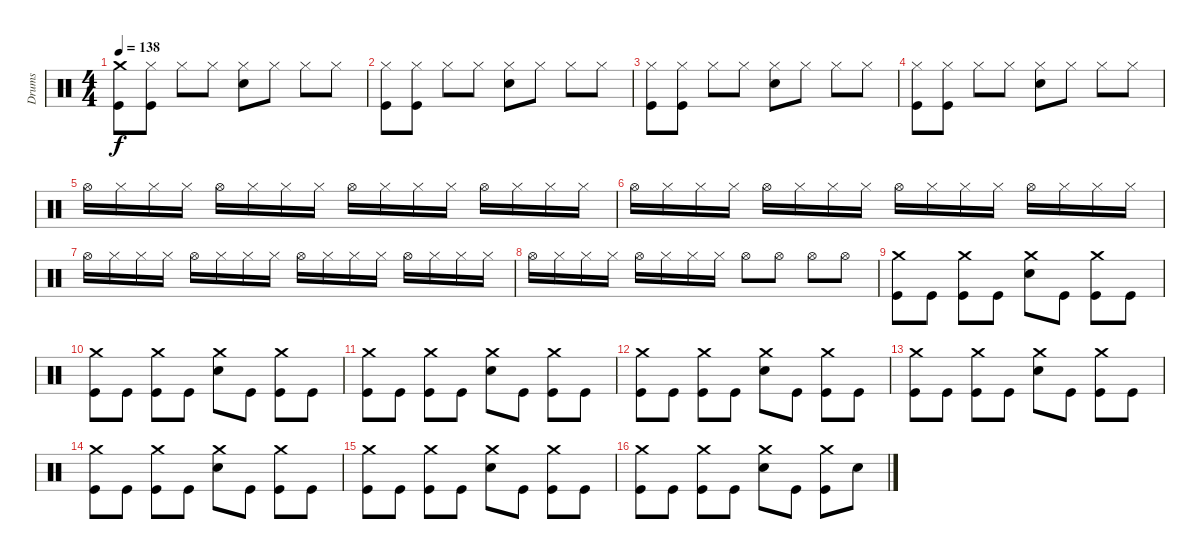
\track ("Drums" "Drums") {instrument percussion}
\staff {score}
\articulation defaults
\ts (4 4)
\tempo 138
\clef neutral
\ks c
("Crash medium (hit)" "Kick (hit)").8{dy f} ("Hi-Hat (closed)" "Kick (hit)").8 "Hi-Hat (closed)".8 "Hi-Hat (closed)".8 ("Hi-Hat (closed)" "Snare (hit) 2").8 "Hi-Hat (closed)".8 "Hi-Hat (closed)".8 "Hi-Hat (closed)".8 |
("Hi-Hat (closed)" "Kick (hit)").8 ("Hi-Hat (closed)" "Kick (hit)").8 "Hi-Hat (closed)".8 "Hi-Hat (closed)".8 ("Hi-Hat (closed)" "Snare (hit) 2").8 "Hi-Hat (closed)".8 "Hi-Hat (closed)".8 "Hi-Hat (closed)".8 |
("Hi-Hat (closed)" "Kick (hit)").8 ("Hi-Hat (closed)" "Kick (hit)").8 "Hi-Hat (closed)".8 "Hi-Hat (closed)".8 ("Hi-Hat (closed)" "Snare (hit) 2").8 "Hi-Hat (closed)".8 "Hi-Hat (closed)".8 "Hi-Hat (closed)".8 |
("Hi-Hat (closed)" "Kick (hit)").8 ("Hi-Hat (closed)" "Kick (hit)").8 "Hi-Hat (closed)".8 "Hi-Hat (closed)".8 ("Hi-Hat (closed)" "Snare (hit) 2").8 "Hi-Hat (closed)".8 "Hi-Hat (closed)".8 "Hi-Hat (closed)".8 |
"Hi-Hat (open)".16 "Hi-Hat (closed)".16 "Hi-Hat (closed)".16 "Hi-Hat (closed)".16 "Hi-Hat (open)".16 "Hi-Hat (closed)".16 "Hi-Hat (closed)".16 "Hi-Hat (closed)".16 "Hi-Hat (open)".16 "Hi-Hat (closed)".16 "Hi-Hat (closed)".16 "Hi-Hat (closed)".16 "Hi-Hat (open)".16 "Hi-Hat (closed)".16 "Hi-Hat (closed)".16 "Hi-Hat (closed)".16 |
"Hi-Hat (open)".16 "Hi-Hat (closed)".16 "Hi-Hat (closed)".16 "Hi-Hat (closed)".16 "Hi-Hat (open)".16 "Hi-Hat (closed)".16 "Hi-Hat (closed)".16 "Hi-Hat (closed)".16 "Hi-Hat (open)".16 "Hi-Hat (closed)".16 "Hi-Hat (closed)".16 "Hi-Hat (closed)".16 "Hi-Hat (open)".16 "Hi-Hat (closed)".16 "Hi-Hat (closed)".16 "Hi-Hat (closed)".16 |
"Hi-Hat (open)".16 "Hi-Hat (closed)".16 "Hi-Hat (closed)".16 "Hi-Hat (closed)".16 "Hi-Hat (open)".16 "Hi-Hat (closed)".16 "Hi-Hat (closed)".16 "Hi-Hat (closed)".16 "Hi-Hat (open)".16 "Hi-Hat (closed)".16 "Hi-Hat (closed)".16 "Hi-Hat (closed)".16 "Hi-Hat (open)".16 "Hi-Hat (closed)".16 "Hi-Hat (closed)".16 "Hi-Hat (closed)".16 |
"Hi-Hat (open)".16 "Hi-Hat (closed)".16 "Hi-Hat (closed)".16 "Hi-Hat (closed)".16 "Hi-Hat (open)".16 "Hi-Hat (closed)".16 "Hi-Hat (closed)".16 "Hi-Hat (closed)".16 "Hi-Hat (open)".8 "Hi-Hat (open)".8 "Hi-Hat (open)".8 "Hi-Hat (open)".8 |
("Crash medium (hit)" "Kick (hit)").8 "Kick (hit)".8 ("Crash medium (hit)" "Kick (hit)").8 "Kick (hit)".8 ("Crash medium (hit)" "Snare (hit) 2").8 "Kick (hit)".8 ("Crash medium (hit)" "Kick (hit)").8 "Kick (hit)".8 |
("Crash medium (hit)" "Kick (hit)").8 "Kick (hit)".8 ("Crash medium (hit)" "Kick (hit)").8 "Kick (hit)".8 ("Crash medium (hit)" "Snare (hit) 2").8 "Kick (hit)".8 ("Crash medium (hit)" "Kick (hit)").8 "Kick (hit)".8 |
("Crash medium (hit)" "Kick (hit)").8 "Kick (hit)".8 ("Crash medium (hit)" "Kick (hit)").8 "Kick (hit)".8 ("Crash medium (hit)" "Snare (hit) 2").8 "Kick (hit)".8 ("Crash medium (hit)" "Kick (hit)").8 "Kick (hit)".8 |
("Crash medium (hit)" "Kick (hit)").8 "Kick (hit)".8 ("Crash medium (hit)" "Kick (hit)").8 "Kick (hit)".8 ("Crash medium (hit)" "Snare (hit) 2").8 "Kick (hit)".8 ("Crash medium (hit)" "Kick (hit)").8 "Kick (hit)".8 |
("Crash medium (hit)" "Kick (hit)").8 "Kick (hit)".8 ("Crash medium (hit)" "Kick (hit)").8 "Kick (hit)".8 ("Crash medium (hit)" "Snare (hit) 2").8 "Kick (hit)".8 ("Crash medium (hit)" "Kick (hit)").8 "Kick (hit)".8 |
("Crash medium (hit)" "Kick (hit)").8 "Kick (hit)".8 ("Crash medium (hit)" "Kick (hit)").8 "Kick (hit)".8 ("Crash medium (hit)" "Snare (hit) 2").8 "Kick (hit)".8 ("Crash medium (hit)" "Kick (hit)").8 "Kick (hit)".8 |
("Crash medium (hit)" "Kick (hit)").8 "Kick (hit)".8 ("Crash medium (hit)" "Kick (hit)").8 "Kick (hit)".8 ("Crash medium (hit)" "Snare (hit) 2").8 "Kick (hit)".8 ("Crash medium (hit)" "Kick (hit)").8 "Kick (hit)".8 |
("Crash medium (hit)" "Kick (hit)").8 "Kick (hit)".8 ("Crash medium (hit)" "Kick (hit)").8 "Kick (hit)".8 ("Crash medium (hit)" "Snare (hit) 2").8 "Kick (hit)".8 ("Crash medium (hit)" "Kick (hit)").8 "Snare (hit) 2".8
